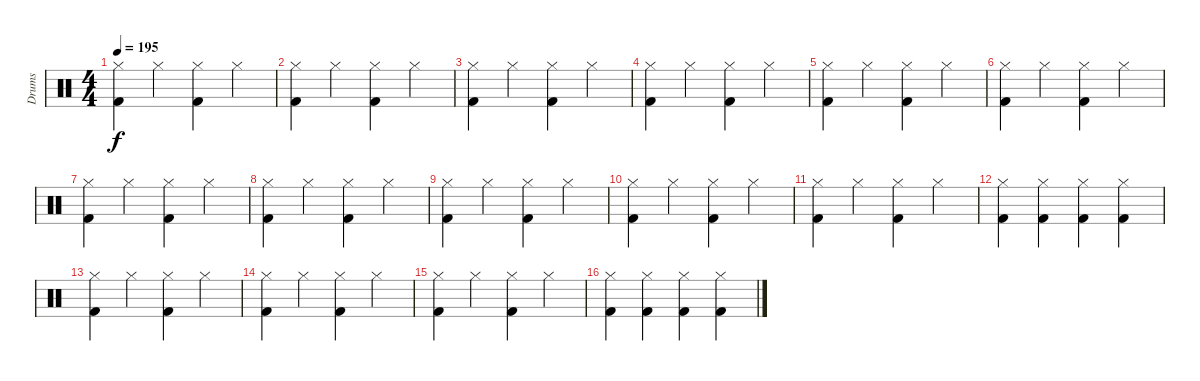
\track ("Drums" "Drums") {instrument percussion}
\staff {score}
\articulation defaults
\ts (4 4)
\tempo 195
\clef neutral
\ks c
("Hi-Hat (closed)" "Kick (hit) 2").4{dy f} "Hi-Hat (closed)".4 ("Hi-Hat (closed)" "Kick (hit) 2").4 "Hi-Hat (closed)".4 |
("Hi-Hat (closed)" "Kick (hit) 2").4 "Hi-Hat (closed)".4 ("Hi-Hat (closed)" "Kick (hit) 2").4 "Hi-Hat (closed)".4 |
("Hi-Hat (closed)" "Kick (hit) 2").4 "Hi-Hat (closed)".4 ("Hi-Hat (closed)" "Kick (hit) 2").4 "Hi-Hat (closed)".4 |
("Hi-Hat (closed)" "Kick (hit) 2").4 "Hi-Hat (closed)".4 ("Hi-Hat (closed)" "Kick (hit) 2").4 "Hi-Hat (closed)".4 |
("Hi-Hat (closed)" "Kick (hit) 2").4 "Hi-Hat (closed)".4 ("Hi-Hat (closed)" "Kick (hit) 2").4 "Hi-Hat (closed)".4 |
("Hi-Hat (closed)" "Kick (hit) 2").4 "Hi-Hat (closed)".4 ("Hi-Hat (closed)" "Kick (hit) 2").4 "Hi-Hat (closed)".4 |
("Hi-Hat (closed)" "Kick (hit) 2").4 "Hi-Hat (closed)".4 ("Hi-Hat (closed)" "Kick (hit) 2").4 "Hi-Hat (closed)".4 |
("Hi-Hat (closed)" "Kick (hit) 2").4 "Hi-Hat (closed)".4 ("Hi-Hat (closed)" "Kick (hit) 2").4 "Hi-Hat (closed)".4 |
("Hi-Hat (closed)" "Kick (hit) 2").4 "Hi-Hat (closed)".4 ("Hi-Hat (closed)" "Kick (hit) 2").4 "Hi-Hat (closed)".4 |
("Hi-Hat (closed)" "Kick (hit) 2").4 "Hi-Hat (closed)".4 ("Hi-Hat (closed)" "Kick (hit) 2").4 "Hi-Hat (closed)".4 |
("Hi-Hat (closed)" "Kick (hit) 2").4 "Hi-Hat (closed)".4 ("Hi-Hat (closed)" "Kick (hit) 2").4 "Hi-Hat (closed)".4 |
("Hi-Hat (closed)" "Kick (hit) 2").4 ("Hi-Hat (closed)" "Kick (hit) 2").4 ("Hi-Hat (closed)" "Kick (hit) 2").4 ("Hi-Hat (closed)" "Kick (hit) 2").4 |
("Hi-Hat (closed)" "Kick (hit) 2").4 "Hi-Hat (closed)".4 ("Hi-Hat (closed)" "Kick (hit) 2").4 "Hi-Hat (closed)".4 |
("Hi-Hat (closed)" "Kick (hit) 2").4 "Hi-Hat (closed)".4 ("Hi-Hat (closed)" "Kick (hit) 2").4 "Hi-Hat (closed)".4 |
("Hi-Hat (closed)" "Kick (hit) 2").4 "Hi-Hat (closed)".4 ("Hi-Hat (closed)" "Kick (hit) 2").4 "Hi-Hat (closed)".4 |
("Hi-Hat (closed)" "Kick (hit) 2").4 ("Hi-Hat (closed)" "Kick (hit) 2").4 ("Hi-Hat (closed)" "Kick (hit) 2").4 ("Hi-Hat (closed)" "Kick (hit) 2").4
